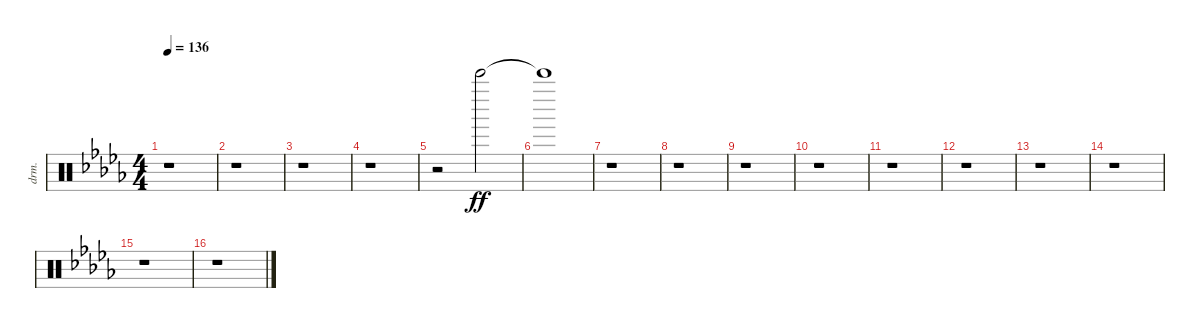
\bracketExtendMode nobrackets
\track ("Wind Chimes" "drm.") {instrument percussion}
\staff {score}
\articulation defaults
\ts (4 4)
\tempo 136
\clef neutral
\ks db
r.1{dy ff beam Down} |
r.1{beam Down} |
r.1{beam Down} |
r.1{beam Down} |
r.2{beam Down} "Bell Tree (hit)"{acc forcenatural}.2{beam Down} |
"Bell Tree (hit)"{t acc forcenatural}.1{beam Down} |
r.1{beam Down} |
r.1{beam Down} |
r.1{beam Down} |
r.1{beam Down} |
r.1{beam Down} |
r.1{beam Down} |
r.1{beam Down} |
r.1{beam Down} |
r.1{beam Down} |
r.1{beam Down}
